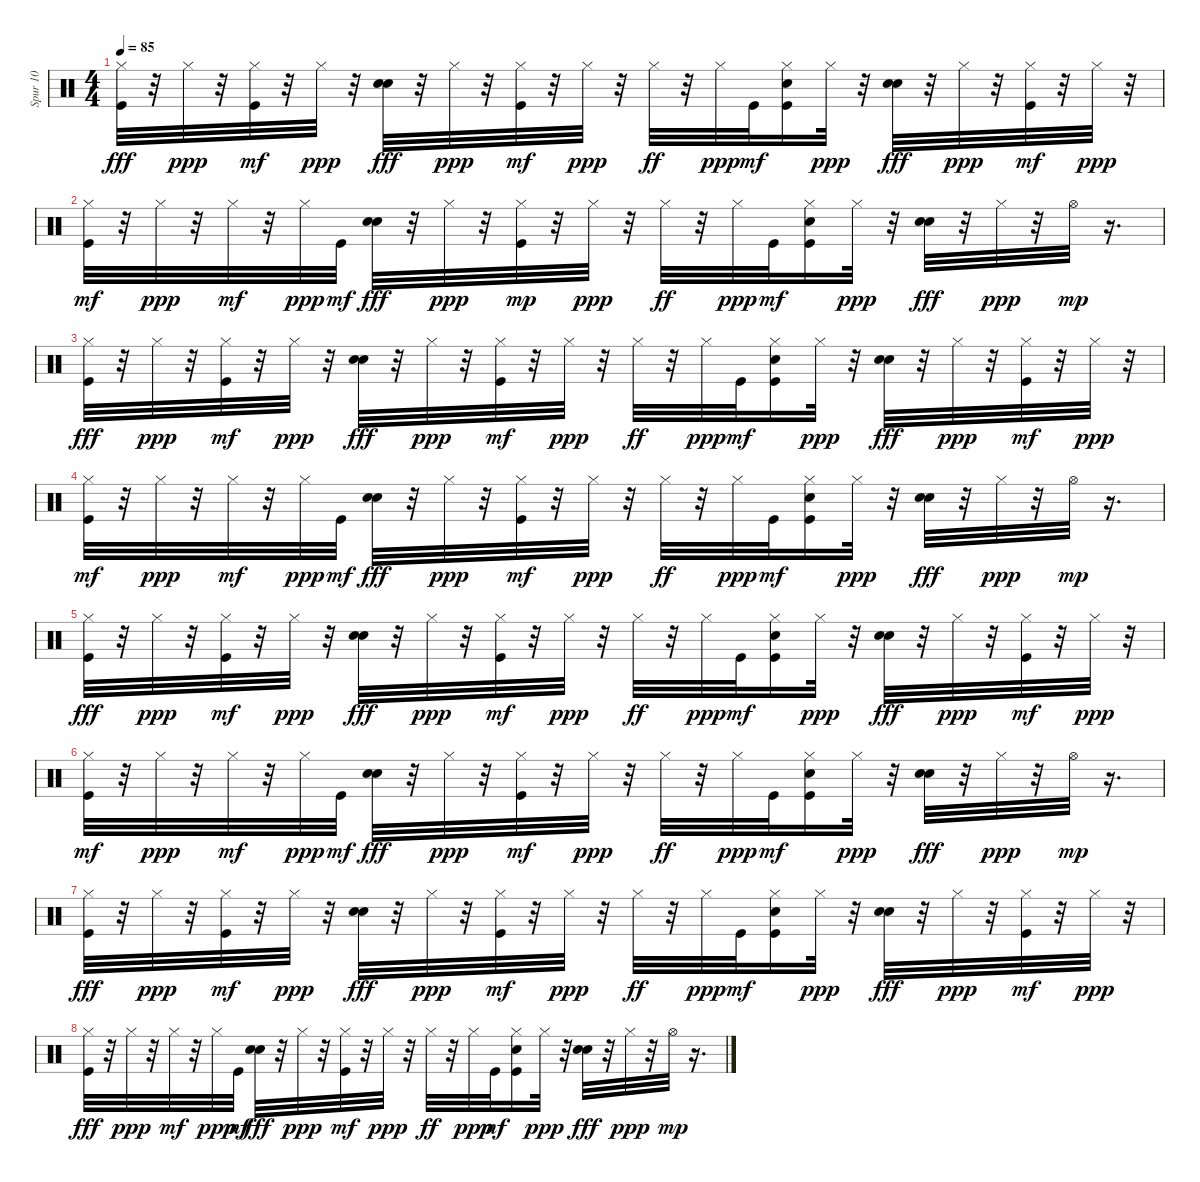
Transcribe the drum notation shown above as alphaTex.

\track ("Spur 10" "Spur 10") {instrument percussion}
\staff {score}
\articulation defaults
\ts (4 4)
\tempo 85
\clef neutral
\ks c
("Kick (hit)" "Hi-Hat (closed)").32{dy fff} r.32 "Hi-Hat (closed)".32{dy ppp} r.32 ("Hi-Hat (closed)" "Kick (hit)").32{dy mf} r.32 "Hi-Hat (closed)".32{dy ppp} r.32 ("Electric Snare (hit)" "Hand Clap (hit)").32{dy fff} r.32 "Hi-Hat (closed)".32{dy ppp} r.32 ("Hi-Hat (closed)" "Kick (hit)").32{dy mf} r.32 "Hi-Hat (closed)".32{dy ppp} r.32 "Hi-Hat (closed)".32{dy ff} r.32 "Hi-Hat (closed)".32{dy ppp} "Kick (hit)".32{dy mf} ("Kick (hit)" "Hi-Hat (closed)" "Snare (hit)").16 "Hi-Hat (closed)".32{dy ppp} r.32 ("Hand Clap (hit)" "Electric Snare (hit)").32{dy fff} r.32 "Hi-Hat (closed)".32{dy ppp} r.32 ("Hi-Hat (closed)" "Kick (hit)").32{dy mf} r.32 "Hi-Hat (closed)".32{dy ppp} r.32 |
("Hi-Hat (closed)" "Kick (hit)").32{dy mf} r.32 "Hi-Hat (closed)".32{dy ppp} r.32 "Hi-Hat (closed)".32{dy mf} r.32 "Hi-Hat (closed)".32{dy ppp} "Kick (hit)".32{dy mf} ("Electric Snare (hit)" "Hand Clap (hit)").32{dy fff} r.32 "Hi-Hat (closed)".32{dy ppp} r.32 ("Kick (hit)" "Hi-Hat (closed)").32{dy mp} r.32 "Hi-Hat (closed)".32{dy ppp} r.32 "Hi-Hat (closed)".32{dy ff} r.32 "Hi-Hat (closed)".32{dy ppp} "Kick (hit)".32{dy mf} ("Snare (hit)" "Hi-Hat (closed)" "Kick (hit)").16 "Hi-Hat (closed)".32{dy ppp} r.32 ("Hand Clap (hit)" "Electric Snare (hit)").32{dy fff} r.32 "Hi-Hat (closed)".32{dy ppp} r.32 "Hi-Hat (open)".32{dy mp} r.16{d} |
("Kick (hit)" "Hi-Hat (closed)").32{dy fff} r.32 "Hi-Hat (closed)".32{dy ppp} r.32 ("Hi-Hat (closed)" "Kick (hit)").32{dy mf} r.32 "Hi-Hat (closed)".32{dy ppp} r.32 ("Electric Snare (hit)" "Hand Clap (hit)").32{dy fff} r.32 "Hi-Hat (closed)".32{dy ppp} r.32 ("Hi-Hat (closed)" "Kick (hit)").32{dy mf} r.32 "Hi-Hat (closed)".32{dy ppp} r.32 "Hi-Hat (closed)".32{dy ff} r.32 "Hi-Hat (closed)".32{dy ppp} "Kick (hit)".32{dy mf} ("Kick (hit)" "Hi-Hat (closed)" "Snare (hit)").16 "Hi-Hat (closed)".32{dy ppp} r.32 ("Hand Clap (hit)" "Electric Snare (hit)").32{dy fff} r.32 "Hi-Hat (closed)".32{dy ppp} r.32 ("Hi-Hat (closed)" "Kick (hit)").32{dy mf} r.32 "Hi-Hat (closed)".32{dy ppp} r.32 |
("Hi-Hat (closed)" "Kick (hit)").32{dy mf} r.32 "Hi-Hat (closed)".32{dy ppp} r.32 "Hi-Hat (closed)".32{dy mf} r.32 "Hi-Hat (closed)".32{dy ppp} "Kick (hit)".32{dy mf} ("Electric Snare (hit)" "Hand Clap (hit)").32{dy fff} r.32 "Hi-Hat (closed)".32{dy ppp} r.32 ("Hi-Hat (closed)" "Kick (hit)").32{dy mf} r.32 "Hi-Hat (closed)".32{dy ppp} r.32 "Hi-Hat (closed)".32{dy ff} r.32 "Hi-Hat (closed)".32{dy ppp} "Kick (hit)".32{dy mf} ("Kick (hit)" "Hi-Hat (closed)" "Snare (hit)").16 "Hi-Hat (closed)".32{dy ppp} r.32 ("Hand Clap (hit)" "Electric Snare (hit)").32{dy fff} r.32 "Hi-Hat (closed)".32{dy ppp} r.32 "Hi-Hat (open)".32{dy mp} r.16{d} |
("Kick (hit)" "Hi-Hat (closed)").32{dy fff} r.32 "Hi-Hat (closed)".32{dy ppp} r.32 ("Hi-Hat (closed)" "Kick (hit)").32{dy mf} r.32 "Hi-Hat (closed)".32{dy ppp} r.32 ("Electric Snare (hit)" "Hand Clap (hit)").32{dy fff} r.32 "Hi-Hat (closed)".32{dy ppp} r.32 ("Kick (hit)" "Hi-Hat (closed)").32{dy mf} r.32 "Hi-Hat (closed)".32{dy ppp} r.32 "Hi-Hat (closed)".32{dy ff} r.32 "Hi-Hat (closed)".32{dy ppp} "Kick (hit)".32{dy mf} ("Kick (hit)" "Hi-Hat (closed)" "Snare (hit)").16 "Hi-Hat (closed)".32{dy ppp} r.32 ("Hand Clap (hit)" "Electric Snare (hit)").32{dy fff} r.32 "Hi-Hat (closed)".32{dy ppp} r.32 ("Hi-Hat (closed)" "Kick (hit)").32{dy mf} r.32 "Hi-Hat (closed)".32{dy ppp} r.32 |
("Hi-Hat (closed)" "Kick (hit)").32{dy mf} r.32 "Hi-Hat (closed)".32{dy ppp} r.32 "Hi-Hat (closed)".32{dy mf} r.32 "Hi-Hat (closed)".32{dy ppp} "Kick (hit)".32{dy mf} ("Electric Snare (hit)" "Hand Clap (hit)").32{dy fff} r.32 "Hi-Hat (closed)".32{dy ppp} r.32 ("Hi-Hat (closed)" "Kick (hit)").32{dy mf} r.32 "Hi-Hat (closed)".32{dy ppp} r.32 "Hi-Hat (closed)".32{dy ff} r.32 "Hi-Hat (closed)".32{dy ppp} "Kick (hit)".32{dy mf} ("Kick (hit)" "Hi-Hat (closed)" "Snare (hit)").16 "Hi-Hat (closed)".32{dy ppp} r.32 ("Electric Snare (hit)" "Hand Clap (hit)").32{dy fff} r.32 "Hi-Hat (closed)".32{dy ppp} r.32 "Hi-Hat (open)".32{dy mp} r.16{d} |
("Kick (hit)" "Hi-Hat (closed)").32{dy fff} r.32 "Hi-Hat (closed)".32{dy ppp} r.32 ("Hi-Hat (closed)" "Kick (hit)").32{dy mf} r.32 "Hi-Hat (closed)".32{dy ppp} r.32 ("Electric Snare (hit)" "Hand Clap (hit)").32{dy fff} r.32 "Hi-Hat (closed)".32{dy ppp} r.32 ("Hi-Hat (closed)" "Kick (hit)").32{dy mf} r.32 "Hi-Hat (closed)".32{dy ppp} r.32 "Hi-Hat (closed)".32{dy ff} r.32 "Hi-Hat (closed)".32{dy ppp} "Kick (hit)".32{dy mf} ("Hi-Hat (closed)" "Kick (hit)" "Snare (hit)").16 "Hi-Hat (closed)".32{dy ppp} r.32 ("Hand Clap (hit)" "Electric Snare (hit)").32{dy fff} r.32 "Hi-Hat (closed)".32{dy ppp} r.32 ("Hi-Hat (closed)" "Kick (hit)").32{dy mf} r.32 "Hi-Hat (closed)".32{dy ppp} r.32 |
("Kick (hit)" "Hi-Hat (closed)").32{dy fff} r.32 "Hi-Hat (closed)".32{dy ppp} r.32 "Hi-Hat (closed)".32{dy mf} r.32 "Hi-Hat (closed)".32{dy ppp} "Kick (hit)".32{dy mf} ("Electric Snare (hit)" "Hand Clap (hit)").32{dy fff} r.32 "Hi-Hat (closed)".32{dy ppp} r.32 ("Hi-Hat (closed)" "Kick (hit)").32{dy mf} r.32 "Hi-Hat (closed)".32{dy ppp} r.32 "Hi-Hat (closed)".32{dy ff} r.32 "Hi-Hat (closed)".32{dy ppp} "Kick (hit)".32{dy mf} ("Snare (hit)" "Hi-Hat (closed)" "Kick (hit)").16 "Hi-Hat (closed)".32{dy ppp} r.32 ("Hand Clap (hit)" "Electric Snare (hit)").32{dy fff} r.32 "Hi-Hat (closed)".32{dy ppp} r.32 "Hi-Hat (open)".32{dy mp} r.16{d}
